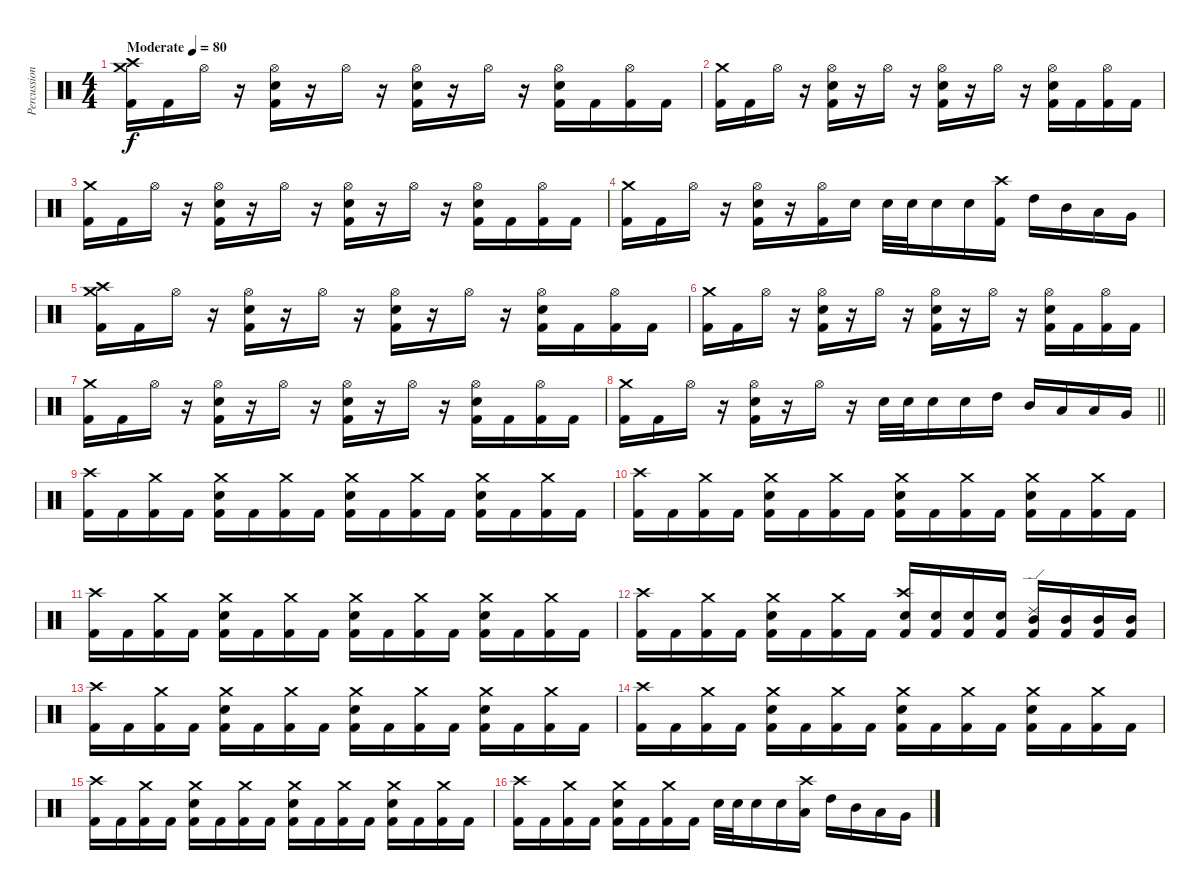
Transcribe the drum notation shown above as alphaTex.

\track ("Percussion" "Percussion") {instrument percussion}
\staff {score}
\articulation defaults
\ts (4 4)
\tempo (80 "Moderate")
\clef neutral
\ks c
("Kick (hit) 2" "Crash medium (hit)" "Crash high (hit)").16{dy f} "Kick (hit) 2".16 "Hi-Hat (open)".16 r.16 ("Kick (hit) 2" "Hi-Hat (open)" "Snare (hit) 2").16 r.16 "Hi-Hat (open)".16 r.16 ("Kick (hit) 2" "Hi-Hat (open)" "Snare (hit) 2").16 r.16 "Hi-Hat (open)".16 r.16 ("Kick (hit) 2" "Hi-Hat (open)" "Snare (hit) 2").16 "Kick (hit) 2".16 ("Kick (hit) 2" "Hi-Hat (open)").16 "Kick (hit) 2".16 |
("Kick (hit) 2" "Crash medium (hit)").16 "Kick (hit) 2".16 "Hi-Hat (open)".16 r.16 ("Kick (hit) 2" "Hi-Hat (open)" "Snare (hit) 2").16 r.16 "Hi-Hat (open)".16 r.16 ("Kick (hit) 2" "Hi-Hat (open)" "Snare (hit) 2").16 r.16 "Hi-Hat (open)".16 r.16 ("Kick (hit) 2" "Hi-Hat (open)" "Snare (hit) 2").16 "Kick (hit) 2".16 ("Kick (hit) 2" "Hi-Hat (open)").16 "Kick (hit) 2".16 |
("Kick (hit) 2" "Crash medium (hit)").16 "Kick (hit) 2".16 "Hi-Hat (open)".16 r.16 ("Kick (hit) 2" "Hi-Hat (open)" "Snare (hit) 2").16 r.16 "Hi-Hat (open)".16 r.16 ("Kick (hit) 2" "Hi-Hat (open)" "Snare (hit) 2").16 r.16 "Hi-Hat (open)".16 r.16 ("Kick (hit) 2" "Hi-Hat (open)" "Snare (hit) 2").16 "Kick (hit) 2".16 ("Kick (hit) 2" "Hi-Hat (open)").16 "Kick (hit) 2".16 |
("Kick (hit) 2" "Crash medium (hit)").16 "Kick (hit) 2".16 "Hi-Hat (open)".16 r.16 ("Kick (hit) 2" "Hi-Hat (open)" "Snare (hit) 2").16 r.16 ("Kick (hit) 2" "Hi-Hat (open)").16 "Snare (hit)".16 "Snare (hit) 2".32 "Snare (hit) 2".32 "Snare (hit) 2".16 "Snare (hit) 2".16 ("Kick (hit) 2" "Crash high (hit)").16 "High Tom (hit)".16 "Mid Tom (hit)".16 "Low Tom (hit)".16 "Very Low Tom (hit)".16 |
("Kick (hit) 2" "Crash medium (hit)" "Crash high (hit)").16 "Kick (hit) 2".16 "Hi-Hat (open)".16 r.16 ("Kick (hit) 2" "Hi-Hat (open)" "Snare (hit) 2").16 r.16 "Hi-Hat (open)".16 r.16 ("Kick (hit) 2" "Hi-Hat (open)" "Snare (hit) 2").16 r.16 "Hi-Hat (open)".16 r.16 ("Kick (hit) 2" "Hi-Hat (open)" "Snare (hit) 2").16 "Kick (hit) 2".16 ("Kick (hit) 2" "Hi-Hat (open)").16 "Kick (hit) 2".16 |
("Kick (hit) 2" "Crash medium (hit)").16 "Kick (hit) 2".16 "Hi-Hat (open)".16 r.16 ("Kick (hit) 2" "Hi-Hat (open)" "Snare (hit) 2").16 r.16 "Hi-Hat (open)".16 r.16 ("Kick (hit) 2" "Hi-Hat (open)" "Snare (hit) 2").16 r.16 "Hi-Hat (open)".16 r.16 ("Kick (hit) 2" "Hi-Hat (open)" "Snare (hit) 2").16 "Kick (hit) 2".16 ("Kick (hit) 2" "Hi-Hat (open)").16 "Kick (hit) 2".16 |
("Kick (hit) 2" "Crash medium (hit)").16 "Kick (hit) 2".16 "Hi-Hat (open)".16 r.16 ("Kick (hit) 2" "Hi-Hat (open)" "Snare (hit) 2").16 r.16 "Hi-Hat (open)".16 r.16 ("Kick (hit) 2" "Hi-Hat (open)" "Snare (hit) 2").16 r.16 "Hi-Hat (open)".16 r.16 ("Kick (hit) 2" "Hi-Hat (open)" "Snare (hit) 2").16 "Kick (hit) 2".16 ("Kick (hit) 2" "Hi-Hat (open)").16 "Kick (hit) 2".16 |
\barLineRight lightlight
("Kick (hit) 2" "Crash medium (hit)").16 "Kick (hit) 2".16 "Hi-Hat (open)".16 r.16 ("Kick (hit) 2" "Hi-Hat (open)" "Snare (hit) 2").16 r.16 "Hi-Hat (open)".16 r.16 "Snare (hit) 2".32 "Snare (hit) 2".32 "Snare (hit) 2".16 "Snare (hit) 2".16 "High Tom (hit)".16 "Mid Tom (hit)".16 "Low Tom (hit)".16 "Low Tom (hit)".16 "Very Low Tom (hit)".16 |
("Kick (hit) 2" "Crash high (hit)").16 "Kick (hit) 2".16 ("Kick (hit) 2" "Crash medium (hit)").16 "Kick (hit) 2".16 ("Kick (hit) 2" "Snare (hit) 2" "Crash medium (hit)").16 "Kick (hit) 2".16 ("Kick (hit) 2" "Crash medium (hit)").16 "Kick (hit) 2".16 ("Kick (hit) 2" "Snare (hit) 2" "Crash medium (hit)").16 "Kick (hit) 2".16 ("Kick (hit) 2" "Crash medium (hit)").16 "Kick (hit) 2".16 ("Kick (hit) 2" "Snare (hit) 2" "Crash medium (hit)").16 "Kick (hit) 2".16 ("Kick (hit) 2" "Crash medium (hit)").16 "Kick (hit) 2".16 |
("Kick (hit) 2" "Crash high (hit)").16 "Kick (hit) 2".16 ("Kick (hit) 2" "Crash medium (hit)").16 "Kick (hit) 2".16 ("Kick (hit) 2" "Snare (hit) 2" "Crash medium (hit)").16 "Kick (hit) 2".16 ("Kick (hit) 2" "Crash medium (hit)").16 "Kick (hit) 2".16 ("Kick (hit) 2" "Snare (hit) 2" "Crash medium (hit)").16 "Kick (hit) 2".16 ("Kick (hit) 2" "Crash medium (hit)").16 "Kick (hit) 2".16 ("Kick (hit) 2" "Snare (hit) 2" "Crash medium (hit)").16 "Kick (hit) 2".16 ("Kick (hit) 2" "Crash medium (hit)").16 "Kick (hit) 2".16 |
("Kick (hit) 2" "Crash high (hit)").16 "Kick (hit) 2".16 ("Kick (hit) 2" "Crash medium (hit)").16 "Kick (hit) 2".16 ("Kick (hit) 2" "Snare (hit) 2" "Crash medium (hit)").16 "Kick (hit) 2".16 ("Kick (hit) 2" "Crash medium (hit)").16 "Kick (hit) 2".16 ("Kick (hit) 2" "Snare (hit) 2" "Crash medium (hit)").16 "Kick (hit) 2".16 ("Kick (hit) 2" "Crash medium (hit)").16 "Kick (hit) 2".16 ("Kick (hit) 2" "Snare (hit) 2" "Crash medium (hit)").16 "Kick (hit) 2".16 ("Kick (hit) 2" "Crash medium (hit)").16 "Kick (hit) 2".16 |
("Kick (hit) 2" "Crash high (hit)").16 "Kick (hit) 2".16 ("Kick (hit) 2" "Crash medium (hit)").16 "Kick (hit) 2".16 ("Kick (hit) 2" "Snare (hit) 2" "Crash medium (hit)").16 "Kick (hit) 2".16 ("Kick (hit) 2" "Crash medium (hit)").16 "Kick (hit) 2".16 ("Kick (hit) 2" "Snare (hit) 2" "Crash high (hit)").16 ("Kick (hit) 2" "Snare (hit) 2").16 ("Kick (hit) 2" "Snare (hit) 2").16 ("Kick (hit) 2" "Snare (hit) 2").16 ("Kick (hit) 2" "Mid Tom (hit)" "Ride (edge) 2").16 ("Kick (hit) 2" "Mid Tom (hit)").16 ("Kick (hit) 2" "Mid Tom (hit)").16 ("Kick (hit) 2" "Mid Tom (hit)").16 |
("Kick (hit) 2" "Crash high (hit)").16 "Kick (hit) 2".16 ("Kick (hit) 2" "Crash medium (hit)").16 "Kick (hit) 2".16 ("Kick (hit) 2" "Snare (hit) 2" "Crash medium (hit)").16 "Kick (hit) 2".16 ("Kick (hit) 2" "Crash medium (hit)").16 "Kick (hit) 2".16 ("Kick (hit) 2" "Snare (hit) 2" "Crash medium (hit)").16 "Kick (hit) 2".16 ("Kick (hit) 2" "Crash medium (hit)").16 "Kick (hit) 2".16 ("Kick (hit) 2" "Snare (hit) 2" "Crash medium (hit)").16 "Kick (hit) 2".16 ("Kick (hit) 2" "Crash medium (hit)").16 "Kick (hit) 2".16 |
("Kick (hit) 2" "Crash high (hit)").16 "Kick (hit) 2".16 ("Kick (hit) 2" "Crash medium (hit)").16 "Kick (hit) 2".16 ("Kick (hit) 2" "Snare (hit) 2" "Crash medium (hit)").16 "Kick (hit) 2".16 ("Kick (hit) 2" "Crash medium (hit)").16 "Kick (hit) 2".16 ("Kick (hit) 2" "Snare (hit) 2" "Crash medium (hit)").16 "Kick (hit) 2".16 ("Kick (hit) 2" "Crash medium (hit)").16 "Kick (hit) 2".16 ("Kick (hit) 2" "Snare (hit) 2" "Crash medium (hit)").16 "Kick (hit) 2".16 ("Kick (hit) 2" "Crash medium (hit)").16 "Kick (hit) 2".16 |
("Kick (hit) 2" "Crash high (hit)").16 "Kick (hit) 2".16 ("Kick (hit) 2" "Crash medium (hit)").16 "Kick (hit) 2".16 ("Kick (hit) 2" "Snare (hit) 2" "Crash medium (hit)").16 "Kick (hit) 2".16 ("Kick (hit) 2" "Crash medium (hit)").16 "Kick (hit) 2".16 ("Kick (hit) 2" "Snare (hit) 2" "Crash medium (hit)").16 "Kick (hit) 2".16 ("Kick (hit) 2" "Crash medium (hit)").16 "Kick (hit) 2".16 ("Kick (hit) 2" "Snare (hit) 2" "Crash medium (hit)").16 "Kick (hit) 2".16 ("Kick (hit) 2" "Crash medium (hit)").16 "Kick (hit) 2".16 |
("Kick (hit) 2" "Crash high (hit)").16 "Kick (hit) 2".16 ("Kick (hit) 2" "Crash medium (hit)").16 "Kick (hit) 2".16 ("Kick (hit) 2" "Snare (hit) 2" "Crash medium (hit)").16 "Kick (hit) 2".16 ("Kick (hit) 2" "Crash medium (hit)").16 "Kick (hit) 2".16 "Snare (hit) 2".32 "Snare (hit) 2".32 "Snare (hit) 2".16 "Snare (hit) 2".16 ("Low Floor Tom (hit)" "Crash high (hit)").16 "High Tom (hit)".16 "Mid Tom (hit)".16 "Low Tom (hit)".16 "Very Low Tom (hit)".16
